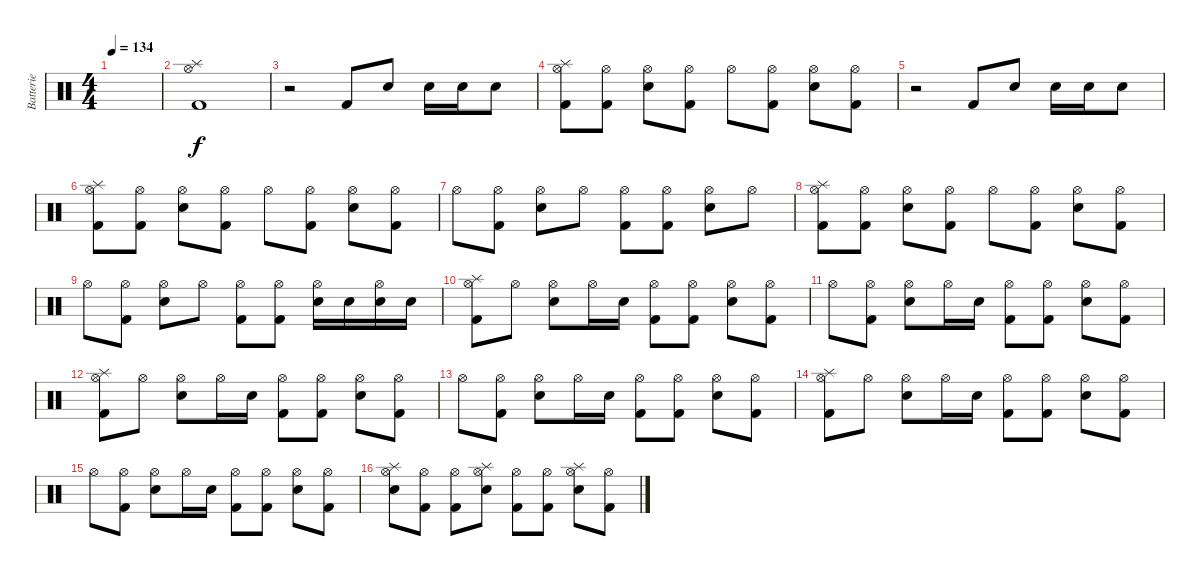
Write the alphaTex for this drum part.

\track ("Batterie" "Batterie") {instrument percussion}
\staff {score}
\articulation defaults
\ts (4 4)
\tempo 134
\clef neutral
\ks c
|
("Splash (hit)" "Hi-Hat (open)" "Kick (hit) 2").1 |
r.2 "Kick (hit) 2".8 "Snare (hit) 2".8 "Snare (hit) 2".16 "Snare (hit) 2".16 "Snare (hit) 2".8 |
("Splash (hit)" "Hi-Hat (open)" "Kick (hit) 2").8 ("Hi-Hat (open)" "Kick (hit) 2").8 ("Hi-Hat (open)" "Snare (hit) 2").8 ("Hi-Hat (open)" "Kick (hit) 2").8 "Hi-Hat (open)".8 ("Hi-Hat (open)" "Kick (hit) 2").8 ("Hi-Hat (open)" "Snare (hit) 2").8 ("Hi-Hat (open)" "Kick (hit) 2").8 |
r.2 "Kick (hit) 2".8 "Snare (hit) 2".8 "Snare (hit) 2".16 "Snare (hit) 2".16 "Snare (hit) 2".8 |
("Splash (hit)" "Hi-Hat (open)" "Kick (hit) 2").8 ("Hi-Hat (open)" "Kick (hit) 2").8 ("Hi-Hat (open)" "Snare (hit) 2").8 ("Hi-Hat (open)" "Kick (hit) 2").8 "Hi-Hat (open)".8 ("Hi-Hat (open)" "Kick (hit) 2").8 ("Hi-Hat (open)" "Snare (hit) 2").8 ("Hi-Hat (open)" "Kick (hit) 2").8 |
"Hi-Hat (open)".8 ("Hi-Hat (open)" "Kick (hit) 2").8 ("Hi-Hat (open)" "Snare (hit) 2").8 "Hi-Hat (open)".8 ("Hi-Hat (open)" "Kick (hit) 2").8 ("Hi-Hat (open)" "Kick (hit) 2").8 ("Hi-Hat (open)" "Snare (hit) 2").8 "Hi-Hat (open)".8 |
("Splash (hit)" "Hi-Hat (open)" "Kick (hit) 2").8 ("Hi-Hat (open)" "Kick (hit) 2").8 ("Hi-Hat (open)" "Snare (hit) 2").8 ("Hi-Hat (open)" "Kick (hit) 2").8 "Hi-Hat (open)".8 ("Hi-Hat (open)" "Kick (hit) 2").8 ("Hi-Hat (open)" "Snare (hit) 2").8 ("Hi-Hat (open)" "Kick (hit) 2").8 |
"Hi-Hat (open)".8 ("Hi-Hat (open)" "Kick (hit) 2").8 ("Hi-Hat (open)" "Snare (hit) 2").8 "Hi-Hat (open)".8 ("Hi-Hat (open)" "Kick (hit) 2").8 ("Hi-Hat (open)" "Kick (hit) 2").8 ("Hi-Hat (open)" "Snare (hit) 2").16 "Snare (hit) 2".16 ("Hi-Hat (open)" "Snare (hit) 2").16 "Snare (hit) 2".16 |
("Splash (hit)" "Hi-Hat (open)" "Kick (hit) 2").8 "Hi-Hat (open)".8 ("Hi-Hat (open)" "Snare (hit) 2").8 "Hi-Hat (open)".16 "Snare (hit) 2".16 ("Hi-Hat (open)" "Kick (hit) 2").8 ("Hi-Hat (open)" "Kick (hit) 2").8 ("Hi-Hat (open)" "Snare (hit) 2").8 ("Hi-Hat (open)" "Kick (hit) 2").8 |
"Hi-Hat (open)".8 ("Hi-Hat (open)" "Kick (hit) 2").8 ("Hi-Hat (open)" "Snare (hit) 2").8 "Hi-Hat (open)".16 "Snare (hit) 2".16 ("Hi-Hat (open)" "Kick (hit) 2").8 ("Hi-Hat (open)" "Kick (hit) 2").8 ("Hi-Hat (open)" "Snare (hit) 2").8 ("Hi-Hat (open)" "Kick (hit) 2").8 |
("Splash (hit)" "Hi-Hat (open)" "Kick (hit) 2").8 "Hi-Hat (open)".8 ("Hi-Hat (open)" "Snare (hit) 2").8 "Hi-Hat (open)".16 "Snare (hit) 2".16 ("Hi-Hat (open)" "Kick (hit) 2").8 ("Hi-Hat (open)" "Kick (hit) 2").8 ("Hi-Hat (open)" "Snare (hit) 2").8 ("Hi-Hat (open)" "Kick (hit) 2").8 |
"Hi-Hat (open)".8 ("Hi-Hat (open)" "Kick (hit) 2").8 ("Hi-Hat (open)" "Snare (hit) 2").8 "Hi-Hat (open)".16 "Snare (hit) 2".16 ("Hi-Hat (open)" "Kick (hit) 2").8 ("Hi-Hat (open)" "Kick (hit) 2").8 ("Hi-Hat (open)" "Snare (hit) 2").8 ("Hi-Hat (open)" "Kick (hit) 2").8 |
("Splash (hit)" "Hi-Hat (open)" "Kick (hit) 2").8 "Hi-Hat (open)".8 ("Hi-Hat (open)" "Snare (hit) 2").8 "Hi-Hat (open)".16 "Snare (hit) 2".16 ("Hi-Hat (open)" "Kick (hit) 2").8 ("Hi-Hat (open)" "Kick (hit) 2").8 ("Hi-Hat (open)" "Snare (hit) 2").8 ("Hi-Hat (open)" "Kick (hit) 2").8 |
"Hi-Hat (open)".8 ("Hi-Hat (open)" "Kick (hit) 2").8 ("Hi-Hat (open)" "Snare (hit) 2").8 "Hi-Hat (open)".16 "Snare (hit) 2".16 ("Hi-Hat (open)" "Kick (hit) 2").8 ("Hi-Hat (open)" "Kick (hit) 2").8 ("Hi-Hat (open)" "Snare (hit) 2").8 ("Hi-Hat (open)" "Kick (hit) 2").8 |
("Splash (hit)" "Hi-Hat (open)" "Snare (hit) 2").8 ("Hi-Hat (open)" "Kick (hit) 2").8 ("Hi-Hat (open)" "Kick (hit) 2").8 ("Hi-Hat (open)" "Splash (hit)" "Snare (hit) 2").8 ("Hi-Hat (open)" "Kick (hit) 2").8 ("Hi-Hat (open)" "Kick (hit) 2").8 ("Hi-Hat (open)" "Splash (hit)" "Snare (hit) 2").8 ("Hi-Hat (open)" "Kick (hit) 2").8
